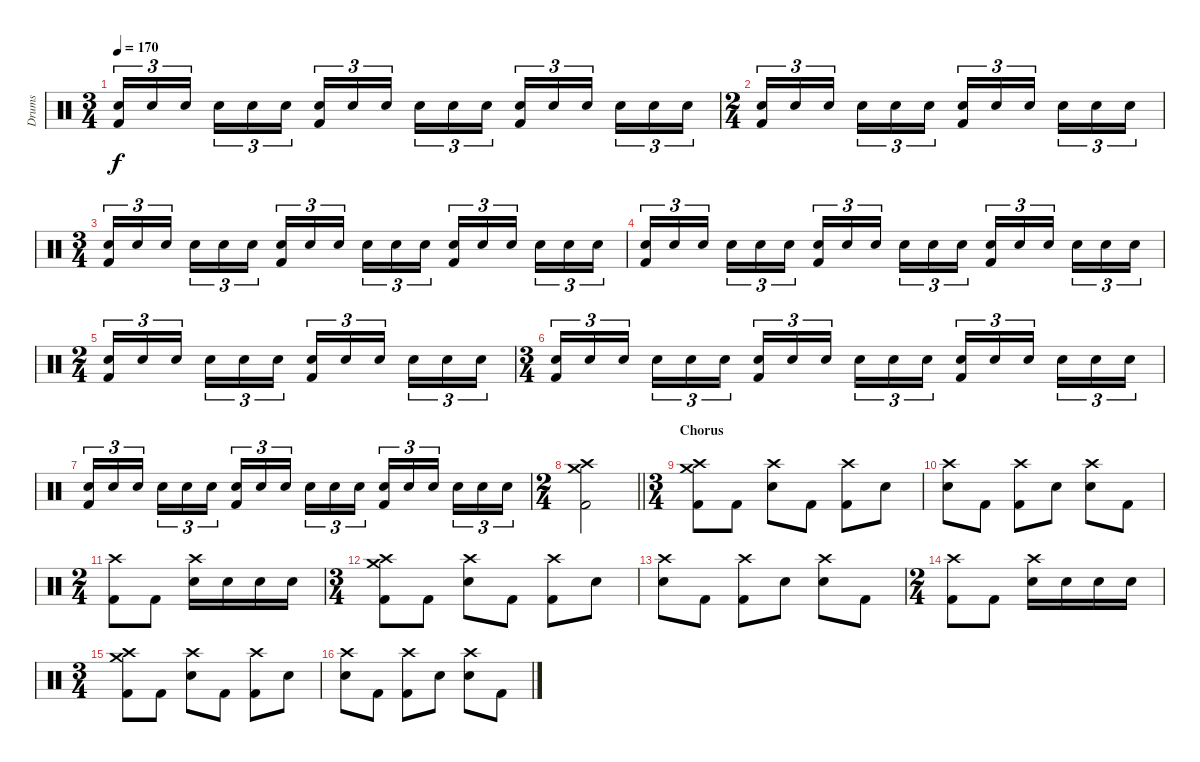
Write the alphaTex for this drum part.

\track ("Drums" "Drums") {instrument percussion}
\staff {score}
\articulation defaults
\ts (3 4)
\tempo 170
\clef neutral
\ks c
("Electric Snare (hit)" "Kick (hit) 2").16{tu (3 2) dy f} "Electric Snare (hit)".16{tu (3 2)} "Electric Snare (hit)".16{tu (3 2) beam splitsecondary} "Electric Snare (hit)".16{tu (3 2)} "Electric Snare (hit)".16{tu (3 2)} "Electric Snare (hit)".16{tu (3 2)} ("Electric Snare (hit)" "Kick (hit) 2").16{tu (3 2)} "Electric Snare (hit)".16{tu (3 2)} "Electric Snare (hit)".16{tu (3 2) beam splitsecondary} "Electric Snare (hit)".16{tu (3 2)} "Electric Snare (hit)".16{tu (3 2)} "Electric Snare (hit)".16{tu (3 2)} ("Electric Snare (hit)" "Kick (hit) 2").16{tu (3 2)} "Electric Snare (hit)".16{tu (3 2)} "Electric Snare (hit)".16{tu (3 2) beam splitsecondary} "Electric Snare (hit)".16{tu (3 2)} "Electric Snare (hit)".16{tu (3 2)} "Electric Snare (hit)".16{tu (3 2)} |
\ts (2 4)
("Electric Snare (hit)" "Kick (hit) 2").16{tu (3 2)} "Electric Snare (hit)".16{tu (3 2)} "Electric Snare (hit)".16{tu (3 2) beam splitsecondary} "Electric Snare (hit)".16{tu (3 2)} "Electric Snare (hit)".16{tu (3 2)} "Electric Snare (hit)".16{tu (3 2)} ("Electric Snare (hit)" "Kick (hit) 2").16{tu (3 2)} "Electric Snare (hit)".16{tu (3 2)} "Electric Snare (hit)".16{tu (3 2) beam splitsecondary} "Electric Snare (hit)".16{tu (3 2)} "Electric Snare (hit)".16{tu (3 2)} "Electric Snare (hit)".16{tu (3 2)} |
\ts (3 4)
("Electric Snare (hit)" "Kick (hit) 2").16{tu (3 2)} "Electric Snare (hit)".16{tu (3 2)} "Electric Snare (hit)".16{tu (3 2) beam splitsecondary} "Electric Snare (hit)".16{tu (3 2)} "Electric Snare (hit)".16{tu (3 2)} "Electric Snare (hit)".16{tu (3 2)} ("Electric Snare (hit)" "Kick (hit) 2").16{tu (3 2)} "Electric Snare (hit)".16{tu (3 2)} "Electric Snare (hit)".16{tu (3 2) beam splitsecondary} "Electric Snare (hit)".16{tu (3 2)} "Electric Snare (hit)".16{tu (3 2)} "Electric Snare (hit)".16{tu (3 2)} ("Electric Snare (hit)" "Kick (hit) 2").16{tu (3 2)} "Electric Snare (hit)".16{tu (3 2)} "Electric Snare (hit)".16{tu (3 2) beam splitsecondary} "Electric Snare (hit)".16{tu (3 2)} "Electric Snare (hit)".16{tu (3 2)} "Electric Snare (hit)".16{tu (3 2)} |
("Electric Snare (hit)" "Kick (hit) 2").16{tu (3 2)} "Electric Snare (hit)".16{tu (3 2)} "Electric Snare (hit)".16{tu (3 2) beam splitsecondary} "Electric Snare (hit)".16{tu (3 2)} "Electric Snare (hit)".16{tu (3 2)} "Electric Snare (hit)".16{tu (3 2)} ("Electric Snare (hit)" "Kick (hit) 2").16{tu (3 2)} "Electric Snare (hit)".16{tu (3 2)} "Electric Snare (hit)".16{tu (3 2) beam splitsecondary} "Electric Snare (hit)".16{tu (3 2)} "Electric Snare (hit)".16{tu (3 2)} "Electric Snare (hit)".16{tu (3 2)} ("Electric Snare (hit)" "Kick (hit) 2").16{tu (3 2)} "Electric Snare (hit)".16{tu (3 2)} "Electric Snare (hit)".16{tu (3 2) beam splitsecondary} "Electric Snare (hit)".16{tu (3 2)} "Electric Snare (hit)".16{tu (3 2)} "Electric Snare (hit)".16{tu (3 2)} |
\ts (2 4)
("Electric Snare (hit)" "Kick (hit) 2").16{tu (3 2)} "Electric Snare (hit)".16{tu (3 2)} "Electric Snare (hit)".16{tu (3 2) beam splitsecondary} "Electric Snare (hit)".16{tu (3 2)} "Electric Snare (hit)".16{tu (3 2)} "Electric Snare (hit)".16{tu (3 2)} ("Electric Snare (hit)" "Kick (hit) 2").16{tu (3 2)} "Electric Snare (hit)".16{tu (3 2)} "Electric Snare (hit)".16{tu (3 2) beam splitsecondary} "Electric Snare (hit)".16{tu (3 2)} "Electric Snare (hit)".16{tu (3 2)} "Electric Snare (hit)".16{tu (3 2)} |
\ts (3 4)
("Electric Snare (hit)" "Kick (hit) 2").16{tu (3 2)} "Electric Snare (hit)".16{tu (3 2)} "Electric Snare (hit)".16{tu (3 2) beam splitsecondary} "Electric Snare (hit)".16{tu (3 2)} "Electric Snare (hit)".16{tu (3 2)} "Electric Snare (hit)".16{tu (3 2)} ("Electric Snare (hit)" "Kick (hit) 2").16{tu (3 2)} "Electric Snare (hit)".16{tu (3 2)} "Electric Snare (hit)".16{tu (3 2) beam splitsecondary} "Electric Snare (hit)".16{tu (3 2)} "Electric Snare (hit)".16{tu (3 2)} "Electric Snare (hit)".16{tu (3 2)} ("Electric Snare (hit)" "Kick (hit) 2").16{tu (3 2)} "Electric Snare (hit)".16{tu (3 2)} "Electric Snare (hit)".16{tu (3 2) beam splitsecondary} "Electric Snare (hit)".16{tu (3 2)} "Electric Snare (hit)".16{tu (3 2)} "Electric Snare (hit)".16{tu (3 2)} |
("Electric Snare (hit)" "Kick (hit) 2").16{tu (3 2)} "Electric Snare (hit)".16{tu (3 2)} "Electric Snare (hit)".16{tu (3 2) beam splitsecondary} "Electric Snare (hit)".16{tu (3 2)} "Electric Snare (hit)".16{tu (3 2)} "Electric Snare (hit)".16{tu (3 2)} ("Electric Snare (hit)" "Kick (hit) 2").16{tu (3 2)} "Electric Snare (hit)".16{tu (3 2)} "Electric Snare (hit)".16{tu (3 2) beam splitsecondary} "Electric Snare (hit)".16{tu (3 2)} "Electric Snare (hit)".16{tu (3 2)} "Electric Snare (hit)".16{tu (3 2)} ("Electric Snare (hit)" "Kick (hit) 2").16{tu (3 2)} "Electric Snare (hit)".16{tu (3 2)} "Electric Snare (hit)".16{tu (3 2) beam splitsecondary} "Electric Snare (hit)".16{tu (3 2)} "Electric Snare (hit)".16{tu (3 2)} "Electric Snare (hit)".16{tu (3 2)} |
\ts (2 4)
\barLineRight lightlight
("Crash high (hit)" "Crash medium (hit)" "Kick (hit) 2").2{volume 12} |
\ts (3 4)
\section ("" "Chorus")
("Crash medium (hit)" "Crash high (hit)" "Kick (hit) 2").8 "Kick (hit) 2".8 ("Crash high (hit)" "Electric Snare (hit)").8 "Kick (hit) 2".8 ("Crash high (hit)" "Kick (hit) 2").8 "Electric Snare (hit)".8 |
("Crash high (hit)" "Electric Snare (hit)").8 "Kick (hit) 2".8 ("Crash high (hit)" "Kick (hit) 2").8 "Electric Snare (hit)".8 ("Crash high (hit)" "Electric Snare (hit)").8 "Kick (hit) 2".8 |
\ts (2 4)
("Crash high (hit)" "Kick (hit) 2").8 "Kick (hit) 2".8 ("Crash high (hit)" "Electric Snare (hit)").16 "Electric Snare (hit)".16 "Electric Snare (hit)".16 "Electric Snare (hit)".16 |
\ts (3 4)
("Crash medium (hit)" "Crash high (hit)" "Kick (hit) 2").8 "Kick (hit) 2".8 ("Crash high (hit)" "Electric Snare (hit)").8 "Kick (hit) 2".8 ("Crash high (hit)" "Kick (hit) 2").8 "Electric Snare (hit)".8 |
("Crash high (hit)" "Electric Snare (hit)").8 "Kick (hit) 2".8 ("Crash high (hit)" "Kick (hit) 2").8 "Electric Snare (hit)".8 ("Crash high (hit)" "Electric Snare (hit)").8 "Kick (hit) 2".8 |
\ts (2 4)
("Crash high (hit)" "Kick (hit) 2").8 "Kick (hit) 2".8 ("Crash high (hit)" "Electric Snare (hit)").16 "Electric Snare (hit)".16 "Electric Snare (hit)".16 "Electric Snare (hit)".16 |
\ts (3 4)
("Crash medium (hit)" "Crash high (hit)" "Kick (hit) 2").8 "Kick (hit) 2".8 ("Crash high (hit)" "Electric Snare (hit)").8 "Kick (hit) 2".8 ("Crash high (hit)" "Kick (hit) 2").8 "Electric Snare (hit)".8 |
("Crash high (hit)" "Electric Snare (hit)").8 "Kick (hit) 2".8 ("Crash high (hit)" "Kick (hit) 2").8 "Electric Snare (hit)".8 ("Crash high (hit)" "Electric Snare (hit)").8 "Kick (hit) 2".8
